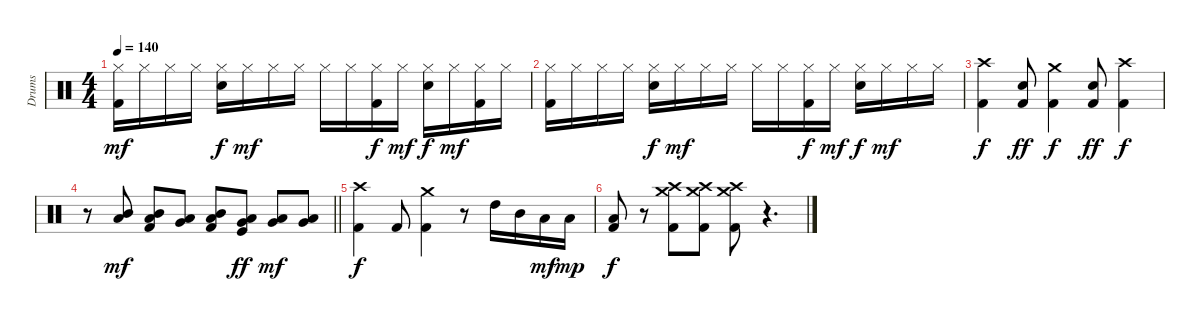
\track ("Drums" "Drums") {instrument percussion}
\staff {score}
\articulation defaults
\ts (4 4)
\tempo 140
\clef neutral
\ks c
("Hi-Hat (closed)" "Kick (hit) 2").16{dy mf} "Hi-Hat (closed)".16 "Hi-Hat (closed)".16 "Hi-Hat (closed)".16 ("Hi-Hat (closed)" "Snare (hit) 2").16{dy f} "Hi-Hat (closed)".16{dy mf} "Hi-Hat (closed)".16 "Hi-Hat (closed)".16 "Hi-Hat (closed)".16 "Hi-Hat (closed)".16 ("Hi-Hat (closed)" "Kick (hit) 2").16{dy f} "Hi-Hat (closed)".16{dy mf} ("Hi-Hat (closed)" "Snare (hit) 2").16{dy f} "Hi-Hat (closed)".16{dy mf} ("Hi-Hat (closed)" "Kick (hit) 2").16 "Hi-Hat (closed)".16 |
("Hi-Hat (closed)" "Kick (hit) 2").16 "Hi-Hat (closed)".16 "Hi-Hat (closed)".16 "Hi-Hat (closed)".16 ("Hi-Hat (closed)" "Snare (hit) 2").16{dy f} "Hi-Hat (closed)".16{dy mf} "Hi-Hat (closed)".16 "Hi-Hat (closed)".16 "Hi-Hat (closed)".16 "Hi-Hat (closed)".16 ("Hi-Hat (closed)" "Kick (hit) 2").16{dy f} "Hi-Hat (closed)".16{dy mf} ("Hi-Hat (closed)" "Snare (hit) 2").16{dy f} "Hi-Hat (closed)".16{dy mf} "Hi-Hat (closed)".16 "Hi-Hat (closed)".16 |
("Crash high (hit)" "Kick (hit) 2").4{dy f} ("Snare (hit) 2" "Kick (hit) 2").8{dy ff} ("Crash medium (hit)" "Kick (hit) 2").4{dy f} ("Snare (hit) 2" "Kick (hit) 2").8{dy ff} ("Crash high (hit)" "Kick (hit) 2").4{dy f} |
\barLineRight lightlight
r.8 ("Mid Tom (hit)" "Low Tom (hit)").8{dy mf} ("Mid Tom (hit)" "Low Tom (hit)" "Kick (hit) 2").8 ("Low Tom (hit)" "Very Low Tom (hit)").8 ("Mid Tom (hit)" "Low Tom (hit)" "Kick (hit) 2").8 ("Low Tom (hit)" "Very Low Tom (hit)" "Kick (hit)").8{dy ff} ("Very Low Tom (hit)" "Low Floor Tom (hit)").8{dy mf} ("Very Low Tom (hit)" "Low Floor Tom (hit)").8 |
("Crash high (hit)" "Kick (hit) 2").4{dy f} "Kick (hit) 2".8 ("Crash medium (hit)" "Kick (hit) 2").4 r.8 "High Tom (hit)".16 "Mid Tom (hit)".16 "Low Tom (hit)".16{dy mf} "Low Tom (hit)".16{dy mp} |
("Low Tom (hit)" "Kick (hit) 2").8{dy f} r.8 ("Crash medium (hit)" "Crash high (hit)" "Kick (hit) 2").8 ("Crash medium (hit)" "Crash high (hit)" "Kick (hit) 2").8 ("Crash medium (hit)" "Crash high (hit)" "Kick (hit) 2").8 r.4{d}
